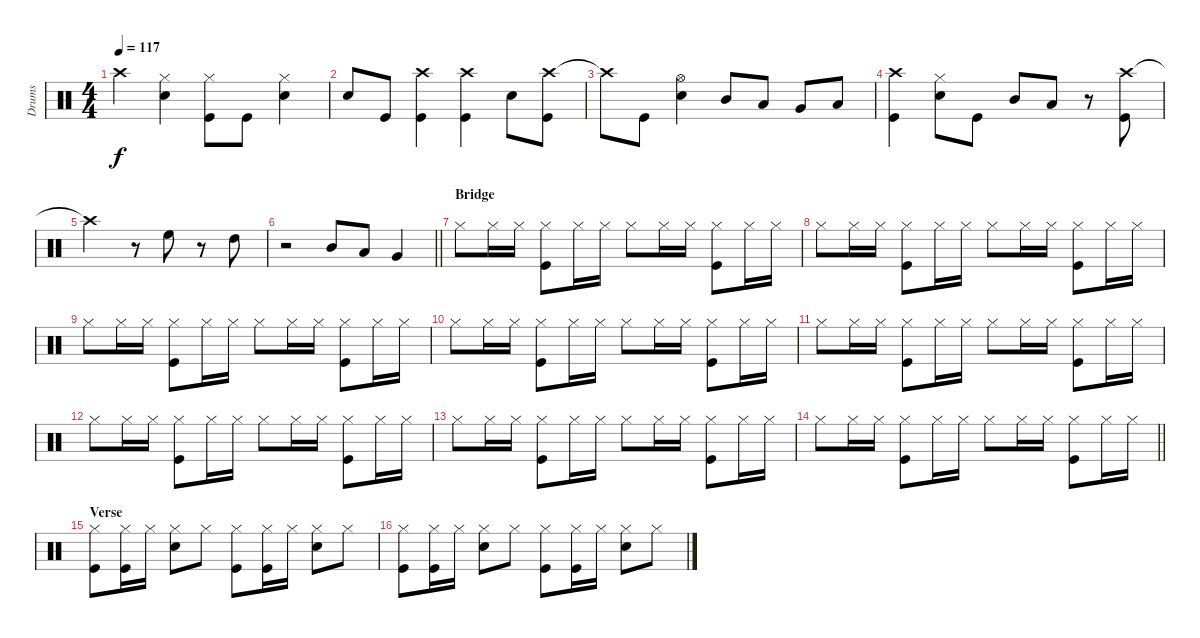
\track ("Drums" "Drums") {instrument percussion}
\staff {score}
\articulation defaults
\ts (4 4)
\tempo 117
\clef neutral
\ks c "Crash high (hit)"{t}.4{dy f}
("Hi-Hat (closed)" "Snare (hit) 2").4 ("Hi-Hat (closed)" "Kick (hit)").8 "Kick (hit)".8 ("Hi-Hat (closed)" "Snare (hit) 2").4 |
"Snare (hit) 2".8 "Kick (hit)".8 ("Crash high (hit)" "Kick (hit)").4 ("Crash high (hit)" "Kick (hit)").4 "Snare (hit) 2".8 ("Crash high (hit)" "Kick (hit)").8 |
"Crash high (hit)"{t}.8 "Kick (hit)".8 ("Hi-Hat (open)" "Snare (hit) 2").4 "Mid Tom (hit)".8 "Low Tom (hit)".8 "Very Low Tom (hit)".8 "Low Floor Tom (hit)".8 |
("Crash high (hit)" "Kick (hit)").4 ("Hi-Hat (closed)" "Snare (hit) 2").8 "Kick (hit)".8 "Mid Tom (hit)".8 "Low Tom (hit)".8 r.8 ("Crash high (hit)" "Kick (hit)").8 |
"Crash high (hit)"{t}.2 r.8 "High Floor Tom (hit)".8 r.8 "High Tom (hit)".8 |
\barLineRight lightlight
r.2 "Mid Tom (hit)".8 "Low Tom (hit)".8 "Very Low Tom (hit)".4 |
\section ("" "Bridge")
"Hi-Hat (closed)".8 "Hi-Hat (closed)".16 "Hi-Hat (closed)".16 ("Hi-Hat (closed)" "Kick (hit)").8 "Hi-Hat (closed)".16 "Hi-Hat (closed)".16 "Hi-Hat (closed)".8 "Hi-Hat (closed)".16 "Hi-Hat (closed)".16 ("Hi-Hat (closed)" "Kick (hit)").8 "Hi-Hat (closed)".16 "Hi-Hat (closed)".16 |
"Hi-Hat (closed)".8 "Hi-Hat (closed)".16 "Hi-Hat (closed)".16 ("Hi-Hat (closed)" "Kick (hit)").8 "Hi-Hat (closed)".16 "Hi-Hat (closed)".16 "Hi-Hat (closed)".8 "Hi-Hat (closed)".16 "Hi-Hat (closed)".16 ("Hi-Hat (closed)" "Kick (hit)").8 "Hi-Hat (closed)".16 "Hi-Hat (closed)".16 |
"Hi-Hat (closed)".8 "Hi-Hat (closed)".16 "Hi-Hat (closed)".16 ("Hi-Hat (closed)" "Kick (hit)").8 "Hi-Hat (closed)".16 "Hi-Hat (closed)".16 "Hi-Hat (closed)".8 "Hi-Hat (closed)".16 "Hi-Hat (closed)".16 ("Hi-Hat (closed)" "Kick (hit)").8 "Hi-Hat (closed)".16 "Hi-Hat (closed)".16 |
"Hi-Hat (closed)".8 "Hi-Hat (closed)".16 "Hi-Hat (closed)".16 ("Hi-Hat (closed)" "Kick (hit)").8 "Hi-Hat (closed)".16 "Hi-Hat (closed)".16 "Hi-Hat (closed)".8 "Hi-Hat (closed)".16 "Hi-Hat (closed)".16 ("Hi-Hat (closed)" "Kick (hit)").8 "Hi-Hat (closed)".16 "Hi-Hat (closed)".16 |
"Hi-Hat (closed)".8 "Hi-Hat (closed)".16 "Hi-Hat (closed)".16 ("Hi-Hat (closed)" "Kick (hit)").8 "Hi-Hat (closed)".16 "Hi-Hat (closed)".16 "Hi-Hat (closed)".8 "Hi-Hat (closed)".16 "Hi-Hat (closed)".16 ("Hi-Hat (closed)" "Kick (hit)").8 "Hi-Hat (closed)".16 "Hi-Hat (closed)".16 |
"Hi-Hat (closed)".8 "Hi-Hat (closed)".16 "Hi-Hat (closed)".16 ("Hi-Hat (closed)" "Kick (hit)").8 "Hi-Hat (closed)".16 "Hi-Hat (closed)".16 "Hi-Hat (closed)".8 "Hi-Hat (closed)".16 "Hi-Hat (closed)".16 ("Hi-Hat (closed)" "Kick (hit)").8 "Hi-Hat (closed)".16 "Hi-Hat (closed)".16 |
"Hi-Hat (closed)".8 "Hi-Hat (closed)".16 "Hi-Hat (closed)".16 ("Hi-Hat (closed)" "Kick (hit)").8 "Hi-Hat (closed)".16 "Hi-Hat (closed)".16 "Hi-Hat (closed)".8 "Hi-Hat (closed)".16 "Hi-Hat (closed)".16 ("Hi-Hat (closed)" "Kick (hit)").8 "Hi-Hat (closed)".16 "Hi-Hat (closed)".16 |
\barLineRight lightlight "Hi-Hat (closed)".8 "Hi-Hat (closed)".16 "Hi-Hat (closed)".16
("Hi-Hat (closed)" "Kick (hit)").8 "Hi-Hat (closed)".16 "Hi-Hat (closed)".16 "Hi-Hat (closed)".8 "Hi-Hat (closed)".16 "Hi-Hat (closed)".16 ("Hi-Hat (closed)" "Kick (hit)").8 "Hi-Hat (closed)".16 "Hi-Hat (closed)".16 |
\section ("" "Verse ")
("Hi-Hat (closed)" "Kick (hit)").8 ("Hi-Hat (closed)" "Kick (hit)").16 "Hi-Hat (closed)".16 ("Hi-Hat (closed)" "Snare (hit) 2").8 "Hi-Hat (closed)".8 ("Hi-Hat (closed)" "Kick (hit)").8 ("Hi-Hat (closed)" "Kick (hit)").16 "Hi-Hat (closed)".16 ("Hi-Hat (closed)" "Snare (hit) 2").8 "Hi-Hat (closed)".8 |
("Hi-Hat (closed)" "Kick (hit)").8 ("Hi-Hat (closed)" "Kick (hit)").16 "Hi-Hat (closed)".16 ("Hi-Hat (closed)" "Snare (hit) 2").8 "Hi-Hat (closed)".8 ("Hi-Hat (closed)" "Kick (hit)").8 ("Hi-Hat (closed)" "Kick (hit)").16 "Hi-Hat (closed)".16 ("Hi-Hat (closed)" "Snare (hit) 2").8 "Hi-Hat (closed)".8
